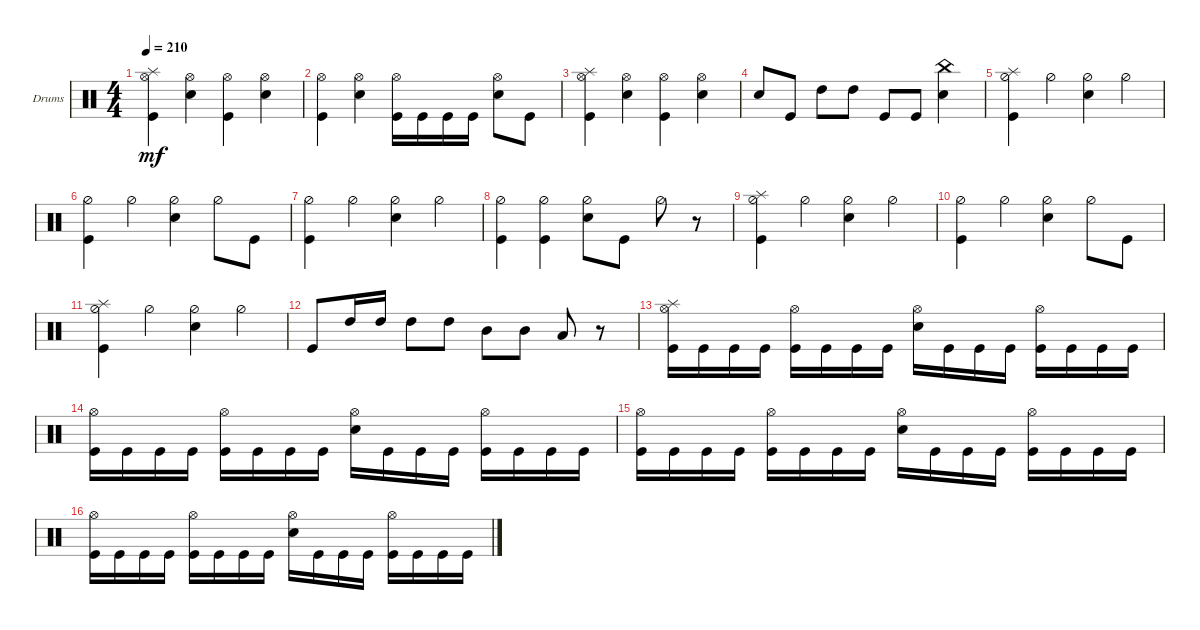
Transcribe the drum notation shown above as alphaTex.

\bracketExtendMode groupsimilarinstruments
\firstSystemTrackNameOrientation horizontal
\otherSystemsTrackNameOrientation horizontal
\track ("Drumkit" "Drums") {instrument percussion}
\staff {score}
\articulation defaults
\ts (4 4)
\tempo 210
\clef neutral
\ks c
("Kick (hit)" "Splash (hit)" "Hi-Hat (open)").4{dy mf} ("Snare (hit) 2" "Hi-Hat (open)").4 ("Kick (hit)" "Hi-Hat (open)").4 ("Snare (hit) 2" "Hi-Hat (open)").4 |
("Kick (hit)" "Hi-Hat (open)").4 ("Snare (hit) 2" "Hi-Hat (open)").4 ("Kick (hit)" "Hi-Hat (open)").16 "Kick (hit)".16 "Kick (hit)".16 "Kick (hit)".16 ("Snare (hit) 2" "Hi-Hat (open)").8 "Kick (hit)".8 |
("Kick (hit)" "Splash (hit)" "Hi-Hat (open)").4 ("Snare (hit) 2" "Hi-Hat (open)").4 ("Kick (hit)" "Hi-Hat (open)").4 ("Snare (hit) 2" "Hi-Hat (open)").4 |
"Snare (hit) 2".8 "Kick (hit)".8 "High Tom (hit)".8 "High Tom (hit)".8 "Kick (hit)".8 "Kick (hit)".8 ("Snare (hit) 2" "China (hit)").4 |
("Kick (hit)" "Splash (hit)" "Hi-Hat (half)").4 "Hi-Hat (half)".4 ("Snare (hit) 2" "Hi-Hat (half)").4 "Hi-Hat (half)".4 |
("Kick (hit)" "Hi-Hat (half)").4 "Hi-Hat (half)".4 ("Snare (hit) 2" "Hi-Hat (half)").4 "Hi-Hat (half)".8 "Kick (hit)".8 |
("Kick (hit)" "Hi-Hat (half)").4 "Hi-Hat (half)".4 ("Snare (hit) 2" "Hi-Hat (half)").4 "Hi-Hat (half)".4 |
("Kick (hit)" "Hi-Hat (half)").4 ("Kick (hit)" "Hi-Hat (half)").4 ("Snare (hit) 2" "Hi-Hat (half)").8 "Kick (hit)".8 "Hi-Hat (half)".8 r.8 |
("Kick (hit)" "Splash (hit)" "Hi-Hat (half)").4 "Hi-Hat (half)".4 ("Snare (hit) 2" "Hi-Hat (half)").4 "Hi-Hat (half)".4 |
("Kick (hit)" "Hi-Hat (half)").4 "Hi-Hat (half)".4 ("Snare (hit) 2" "Hi-Hat (half)").4 "Hi-Hat (half)".8 "Kick (hit)".8 |
("Kick (hit)" "Splash (hit)" "Hi-Hat (half)").4 "Hi-Hat (half)".4 ("Snare (hit) 2" "Hi-Hat (half)").4 "Hi-Hat (half)".4 |
"Kick (hit)".8 "High Tom (hit)".16 "High Tom (hit)".16 "High Tom (hit)".8 "High Tom (hit)".8 "Mid Tom (hit)".8 "Mid Tom (hit)".8 "Low Tom (hit)".8 r.8 |
("Kick (hit)" "Splash (hit)" "Hi-Hat (open)").16 "Kick (hit)".16 "Kick (hit)".16 "Kick (hit)".16 ("Kick (hit)" "Hi-Hat (open)").16 "Kick (hit)".16 "Kick (hit)".16 "Kick (hit)".16 ("Snare (hit) 2" "Hi-Hat (open)").16 "Kick (hit)".16 "Kick (hit)".16 "Kick (hit)".16 ("Kick (hit)" "Hi-Hat (open)").16 "Kick (hit)".16 "Kick (hit)".16 "Kick (hit)".16 |
("Kick (hit)" "Hi-Hat (open)").16 "Kick (hit)".16 "Kick (hit)".16 "Kick (hit)".16 ("Kick (hit)" "Hi-Hat (open)").16 "Kick (hit)".16 "Kick (hit)".16 "Kick (hit)".16 ("Snare (hit) 2" "Hi-Hat (open)").16 "Kick (hit)".16 "Kick (hit)".16 "Kick (hit)".16 ("Kick (hit)" "Hi-Hat (open)").16 "Kick (hit)".16 "Kick (hit)".16 "Kick (hit)".16 |
("Kick (hit)" "Hi-Hat (open)").16 "Kick (hit)".16 "Kick (hit)".16 "Kick (hit)".16 ("Kick (hit)" "Hi-Hat (open)").16 "Kick (hit)".16 "Kick (hit)".16 "Kick (hit)".16 ("Snare (hit) 2" "Hi-Hat (open)").16 "Kick (hit)".16 "Kick (hit)".16 "Kick (hit)".16 ("Kick (hit)" "Hi-Hat (open)").16 "Kick (hit)".16 "Kick (hit)".16 "Kick (hit)".16 |
("Kick (hit)" "Hi-Hat (open)").16 "Kick (hit)".16 "Kick (hit)".16 "Kick (hit)".16 ("Kick (hit)" "Hi-Hat (open)").16 "Kick (hit)".16 "Kick (hit)".16 "Kick (hit)".16 ("Snare (hit) 2" "Hi-Hat (open)").16 "Kick (hit)".16 "Kick (hit)".16 "Kick (hit)".16 ("Kick (hit)" "Hi-Hat (open)").16 "Kick (hit)".16 "Kick (hit)".16 "Kick (hit)".16
